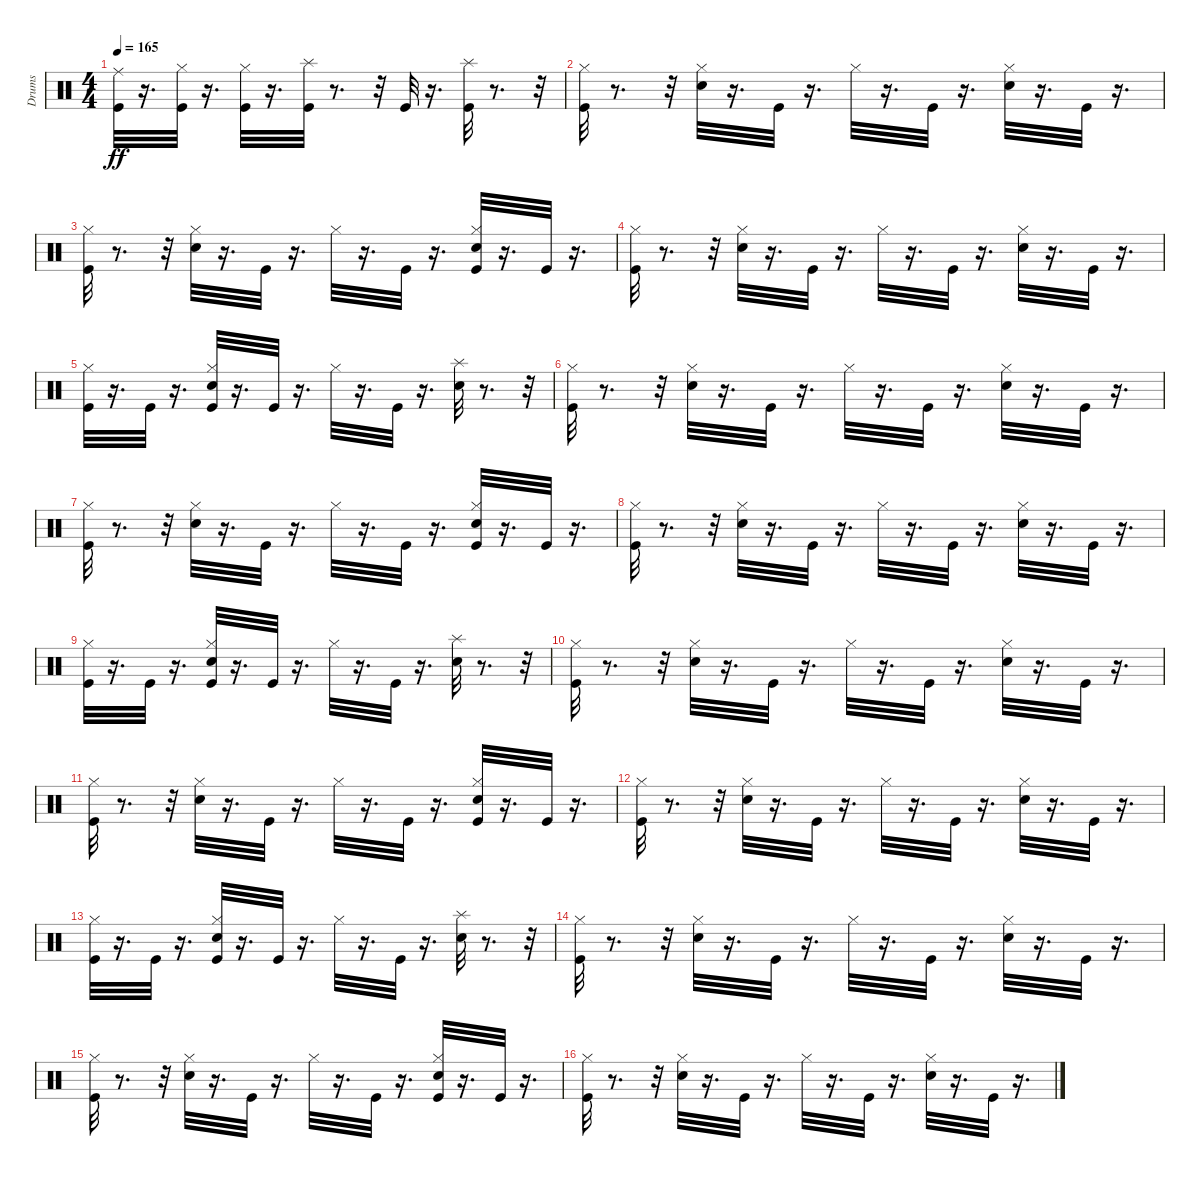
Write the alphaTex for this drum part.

\track ("Drums" "Drums") {instrument percussion}
\staff {score}
\articulation defaults
\ts (4 4)
\tempo 165
\clef neutral
\ks c
("Ride (middle)" "Kick (hit)").32{dy ff} r.16{d} ("Kick (hit)" "Hi-Hat (closed)").32 r.16{d} ("Kick (hit)" "Hi-Hat (closed)").32 r.16{d} ("Splash (hit)" "Kick (hit)").32 r.8{d} r.32 "Kick (hit)".32 r.16{d} ("Splash (hit)" "Kick (hit)").32 r.8{d} r.32 |
("Hi-Hat (closed)" "Kick (hit)").32 r.8{d} r.32 ("Hi-Hat (closed)" "Electric Snare (hit)").32 r.16{d} "Kick (hit)".32 r.16{d} "Hi-Hat (closed)".32 r.16{d} "Kick (hit)".32 r.16{d} ("Hi-Hat (closed)" "Electric Snare (hit)").32 r.16{d} "Kick (hit)".32 r.16{d} |
("Hi-Hat (closed)" "Kick (hit)").32 r.8{d} r.32 ("Hi-Hat (closed)" "Electric Snare (hit)").32 r.16{d} "Kick (hit)".32 r.16{d} "Hi-Hat (closed)".32 r.16{d} "Kick (hit)".32 r.16{d} ("Hi-Hat (closed)" "Electric Snare (hit)" "Kick (hit)").32 r.16{d} "Kick (hit)".32 r.16{d} |
("Hi-Hat (closed)" "Kick (hit)").32 r.8{d} r.32 ("Hi-Hat (closed)" "Electric Snare (hit)").32 r.16{d} "Kick (hit)".32 r.16{d} "Hi-Hat (closed)".32 r.16{d} "Kick (hit)".32 r.16{d} ("Hi-Hat (closed)" "Electric Snare (hit)").32 r.16{d} "Kick (hit)".32 r.16{d} |
("Hi-Hat (closed)" "Kick (hit)").32 r.16{d} "Kick (hit)".32 r.16{d} ("Kick (hit)" "Hi-Hat (closed)" "Electric Snare (hit)").32 r.16{d} "Kick (hit)".32 r.16{d} "Hi-Hat (closed)".32 r.16{d} "Kick (hit)".32 r.16{d} ("Splash (hit)" "Electric Snare (hit)").32 r.8{d} r.32 |
("Hi-Hat (closed)" "Kick (hit)").32 r.8{d} r.32 ("Electric Snare (hit)" "Hi-Hat (closed)").32 r.16{d} "Kick (hit)".32 r.16{d} "Hi-Hat (closed)".32 r.16{d} "Kick (hit)".32 r.16{d} ("Electric Snare (hit)" "Hi-Hat (closed)").32 r.16{d} "Kick (hit)".32 r.16{d} |
("Hi-Hat (closed)" "Kick (hit)").32 r.8{d} r.32 ("Electric Snare (hit)" "Hi-Hat (closed)").32 r.16{d} "Kick (hit)".32 r.16{d} "Hi-Hat (closed)".32 r.16{d} "Kick (hit)".32 r.16{d} ("Electric Snare (hit)" "Kick (hit)" "Hi-Hat (closed)").32 r.16{d} "Kick (hit)".32 r.16{d} |
("Hi-Hat (closed)" "Kick (hit)").32 r.8{d} r.32 ("Electric Snare (hit)" "Hi-Hat (closed)").32 r.16{d} "Kick (hit)".32 r.16{d} "Hi-Hat (closed)".32 r.16{d} "Kick (hit)".32 r.16{d} ("Electric Snare (hit)" "Hi-Hat (closed)").32 r.16{d} "Kick (hit)".32 r.16{d} |
("Hi-Hat (closed)" "Kick (hit)").32 r.16{d} "Kick (hit)".32 r.16{d} ("Kick (hit)" "Hi-Hat (closed)" "Electric Snare (hit)").32 r.16{d} "Kick (hit)".32 r.16{d} "Hi-Hat (closed)".32 r.16{d} "Kick (hit)".32 r.16{d} ("Splash (hit)" "Electric Snare (hit)").32 r.8{d} r.32 |
("Hi-Hat (closed)" "Kick (hit)").32 r.8{d} r.32 ("Hi-Hat (closed)" "Electric Snare (hit)").32 r.16{d} "Kick (hit)".32 r.16{d} "Hi-Hat (closed)".32 r.16{d} "Kick (hit)".32 r.16{d} ("Electric Snare (hit)" "Hi-Hat (closed)").32 r.16{d} "Kick (hit)".32 r.16{d} |
("Hi-Hat (closed)" "Kick (hit)").32 r.8{d} r.32 ("Electric Snare (hit)" "Hi-Hat (closed)").32 r.16{d} "Kick (hit)".32 r.16{d} "Hi-Hat (closed)".32 r.16{d} "Kick (hit)".32 r.16{d} ("Kick (hit)" "Hi-Hat (closed)" "Electric Snare (hit)").32 r.16{d} "Kick (hit)".32 r.16{d} |
("Hi-Hat (closed)" "Kick (hit)").32 r.8{d} r.32 ("Electric Snare (hit)" "Hi-Hat (closed)").32 r.16{d} "Kick (hit)".32 r.16{d} "Hi-Hat (closed)".32 r.16{d} "Kick (hit)".32 r.16{d} ("Electric Snare (hit)" "Hi-Hat (closed)").32 r.16{d} "Kick (hit)".32 r.16{d} |
("Hi-Hat (closed)" "Kick (hit)").32 r.16{d} "Kick (hit)".32 r.16{d} ("Kick (hit)" "Hi-Hat (closed)" "Electric Snare (hit)").32 r.16{d} "Kick (hit)".32 r.16{d} "Hi-Hat (closed)".32 r.16{d} "Kick (hit)".32 r.16{d} ("Splash (hit)" "Electric Snare (hit)").32 r.8{d} r.32 |
("Hi-Hat (closed)" "Kick (hit)").32 r.8{d} r.32 ("Electric Snare (hit)" "Hi-Hat (closed)").32 r.16{d} "Kick (hit)".32 r.16{d} "Hi-Hat (closed)".32 r.16{d} "Kick (hit)".32 r.16{d} ("Electric Snare (hit)" "Hi-Hat (closed)").32 r.16{d} "Kick (hit)".32 r.16{d} |
("Hi-Hat (closed)" "Kick (hit)").32 r.8{d} r.32 ("Electric Snare (hit)" "Hi-Hat (closed)").32 r.16{d} "Kick (hit)".32 r.16{d} "Hi-Hat (closed)".32 r.16{d} "Kick (hit)".32 r.16{d} ("Electric Snare (hit)" "Kick (hit)" "Hi-Hat (closed)").32 r.16{d} "Kick (hit)".32 r.16{d} |
("Hi-Hat (closed)" "Kick (hit)").32 r.8{d} r.32 ("Electric Snare (hit)" "Hi-Hat (closed)").32 r.16{d} "Kick (hit)".32 r.16{d} "Hi-Hat (closed)".32 r.16{d} "Kick (hit)".32 r.16{d} ("Electric Snare (hit)" "Hi-Hat (closed)").32 r.16{d} "Kick (hit)".32 r.16{d}
